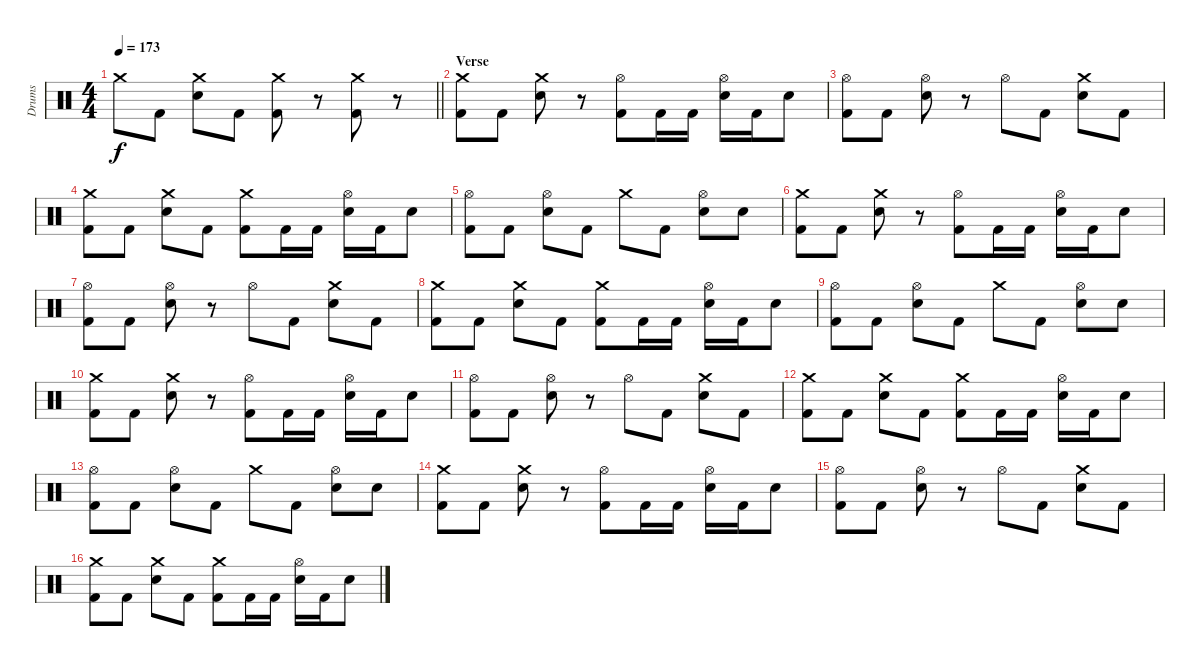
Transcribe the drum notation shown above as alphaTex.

\track ("Drums" "Drums") {instrument percussion}
\staff {score}
\articulation defaults
\ts (4 4)
\tempo 173
\clef neutral
\barLineRight lightlight
\ks c "Crash medium (hit)".8{dy f} "Kick (hit) 2".8
("Crash medium (hit)" "Snare (hit) 2").8 "Kick (hit) 2".8 ("Crash medium (hit)" "Kick (hit) 2").8 r.8 ("Crash medium (hit)" "Kick (hit) 2").8 r.8 |
\section ("" "Verse")
("Crash medium (hit)" "Kick (hit) 2").8 "Kick (hit) 2".8 ("Crash medium (hit)" "Snare (hit) 2").8 r.8 ("Hi-Hat (open)" "Kick (hit) 2").8 "Kick (hit) 2".16 "Kick (hit) 2".16 ("Hi-Hat (open)" "Snare (hit) 2").16 "Kick (hit) 2".16 "Snare (hit) 2".8 |
("Hi-Hat (open)" "Kick (hit) 2").8 "Kick (hit) 2".8 ("Hi-Hat (open)" "Snare (hit) 2").8 r.8 "Hi-Hat (open)".8 "Kick (hit) 2".8 ("Crash medium (hit)" "Snare (hit) 2").8 "Kick (hit) 2".8 |
("Crash medium (hit)" "Kick (hit) 2").8 "Kick (hit) 2".8 ("Crash medium (hit)" "Snare (hit) 2").8 "Kick (hit) 2".8 ("Crash medium (hit)" "Kick (hit) 2").8 "Kick (hit) 2".16 "Kick (hit) 2".16 ("Hi-Hat (open)" "Snare (hit) 2").16 "Kick (hit) 2".16 "Snare (hit) 2".8 |
("Hi-Hat (open)" "Kick (hit) 2").8 "Kick (hit) 2".8 ("Hi-Hat (open)" "Snare (hit) 2").8 "Kick (hit) 2".8 "Crash medium (hit)".8 "Kick (hit) 2".8 ("Hi-Hat (open)" "Snare (hit) 2").8 "Snare (hit) 2".8 |
("Crash medium (hit)" "Kick (hit) 2").8 "Kick (hit) 2".8 ("Crash medium (hit)" "Snare (hit) 2").8 r.8 ("Hi-Hat (open)" "Kick (hit) 2").8 "Kick (hit) 2".16 "Kick (hit) 2".16 ("Hi-Hat (open)" "Snare (hit) 2").16 "Kick (hit) 2".16 "Snare (hit) 2".8 |
("Hi-Hat (open)" "Kick (hit) 2").8 "Kick (hit) 2".8 ("Hi-Hat (open)" "Snare (hit) 2").8 r.8 "Hi-Hat (open)".8 "Kick (hit) 2".8 ("Crash medium (hit)" "Snare (hit) 2").8 "Kick (hit) 2".8 |
("Crash medium (hit)" "Kick (hit) 2").8 "Kick (hit) 2".8 ("Crash medium (hit)" "Snare (hit) 2").8 "Kick (hit) 2".8 ("Crash medium (hit)" "Kick (hit) 2").8 "Kick (hit) 2".16 "Kick (hit) 2".16 ("Hi-Hat (open)" "Snare (hit) 2").16 "Kick (hit) 2".16 "Snare (hit) 2".8 |
("Hi-Hat (open)" "Kick (hit) 2").8 "Kick (hit) 2".8 ("Hi-Hat (open)" "Snare (hit) 2").8 "Kick (hit) 2".8 "Crash medium (hit)".8 "Kick (hit) 2".8 ("Hi-Hat (open)" "Snare (hit) 2").8 "Snare (hit) 2".8 |
("Crash medium (hit)" "Kick (hit) 2").8 "Kick (hit) 2".8 ("Crash medium (hit)" "Snare (hit) 2").8 r.8 ("Hi-Hat (open)" "Kick (hit) 2").8 "Kick (hit) 2".16 "Kick (hit) 2".16 ("Hi-Hat (open)" "Snare (hit) 2").16 "Kick (hit) 2".16 "Snare (hit) 2".8 |
("Hi-Hat (open)" "Kick (hit) 2").8 "Kick (hit) 2".8 ("Hi-Hat (open)" "Snare (hit) 2").8 r.8 "Hi-Hat (open)".8 "Kick (hit) 2".8 ("Crash medium (hit)" "Snare (hit) 2").8 "Kick (hit) 2".8 |
("Crash medium (hit)" "Kick (hit) 2").8 "Kick (hit) 2".8 ("Crash medium (hit)" "Snare (hit) 2").8 "Kick (hit) 2".8 ("Crash medium (hit)" "Kick (hit) 2").8 "Kick (hit) 2".16 "Kick (hit) 2".16 ("Hi-Hat (open)" "Snare (hit) 2").16 "Kick (hit) 2".16 "Snare (hit) 2".8 |
("Hi-Hat (open)" "Kick (hit) 2").8 "Kick (hit) 2".8 ("Hi-Hat (open)" "Snare (hit) 2").8 "Kick (hit) 2".8 "Crash medium (hit)".8 "Kick (hit) 2".8 ("Hi-Hat (open)" "Snare (hit) 2").8 "Snare (hit) 2".8 |
("Crash medium (hit)" "Kick (hit) 2").8 "Kick (hit) 2".8 ("Crash medium (hit)" "Snare (hit) 2").8 r.8 ("Hi-Hat (open)" "Kick (hit) 2").8 "Kick (hit) 2".16 "Kick (hit) 2".16 ("Hi-Hat (open)" "Snare (hit) 2").16 "Kick (hit) 2".16 "Snare (hit) 2".8 |
("Hi-Hat (open)" "Kick (hit) 2").8 "Kick (hit) 2".8 ("Hi-Hat (open)" "Snare (hit) 2").8 r.8 "Hi-Hat (open)".8 "Kick (hit) 2".8 ("Crash medium (hit)" "Snare (hit) 2").8 "Kick (hit) 2".8 |
("Crash medium (hit)" "Kick (hit) 2").8 "Kick (hit) 2".8 ("Crash medium (hit)" "Snare (hit) 2").8 "Kick (hit) 2".8 ("Crash medium (hit)" "Kick (hit) 2").8 "Kick (hit) 2".16 "Kick (hit) 2".16 ("Hi-Hat (open)" "Snare (hit) 2").16 "Kick (hit) 2".16 "Snare (hit) 2".8
